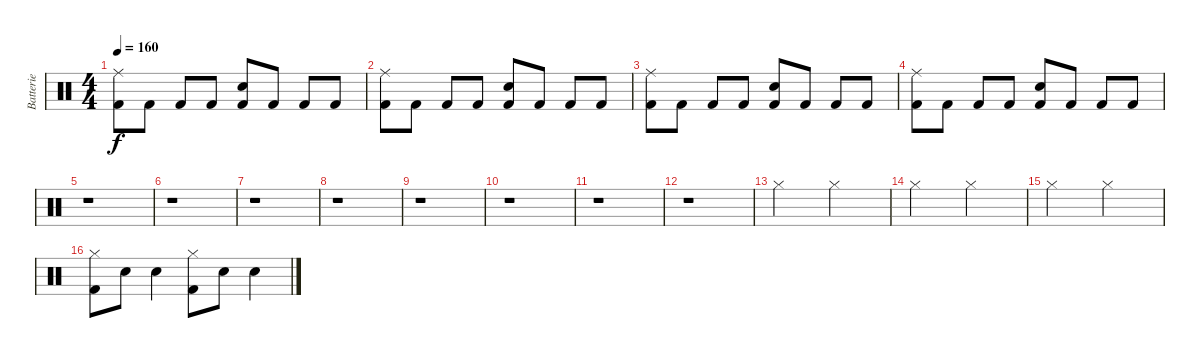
\track ("Batterie" "Batterie") {instrument percussion}
\staff {score}
\articulation defaults
\ts (4 4)
\tempo 160
\clef neutral
\ks c
("Kick (hit) 2" "Ride (middle)").8{dy f} "Kick (hit) 2".8 "Kick (hit) 2".8 "Kick (hit) 2".8 ("Kick (hit) 2" "Snare (hit) 2").8 "Kick (hit) 2".8 "Kick (hit) 2".8 "Kick (hit) 2".8 |
("Kick (hit) 2" "Ride (middle)").8 "Kick (hit) 2".8 "Kick (hit) 2".8 "Kick (hit) 2".8 ("Kick (hit) 2" "Snare (hit) 2").8 "Kick (hit) 2".8 "Kick (hit) 2".8 "Kick (hit) 2".8 |
("Kick (hit) 2" "Ride (middle)").8 "Kick (hit) 2".8 "Kick (hit) 2".8 "Kick (hit) 2".8 ("Kick (hit) 2" "Snare (hit) 2").8 "Kick (hit) 2".8 "Kick (hit) 2".8 "Kick (hit) 2".8 |
("Kick (hit) 2" "Ride (middle)").8 "Kick (hit) 2".8 "Kick (hit) 2".8 "Kick (hit) 2".8 ("Kick (hit) 2" "Snare (hit) 2").8 "Kick (hit) 2".8 "Kick (hit) 2".8 "Kick (hit) 2".8 |
r.1 |
r.1 |
r.1 |
r.1 |
r.1 |
r.1 |
r.1 |
r.1 |
"Hi-Hat (closed)".2 "Hi-Hat (closed)".2 |
"Hi-Hat (closed)".2 "Hi-Hat (closed)".2 |
"Hi-Hat (closed)".2 "Hi-Hat (closed)".2 |
("Kick (hit) 2" "Hi-Hat (closed)").8 "Snare (hit) 2".8 "Snare (hit) 2".4 ("Kick (hit) 2" "Hi-Hat (closed)").8 "Snare (hit) 2".8 "Snare (hit) 2".4
